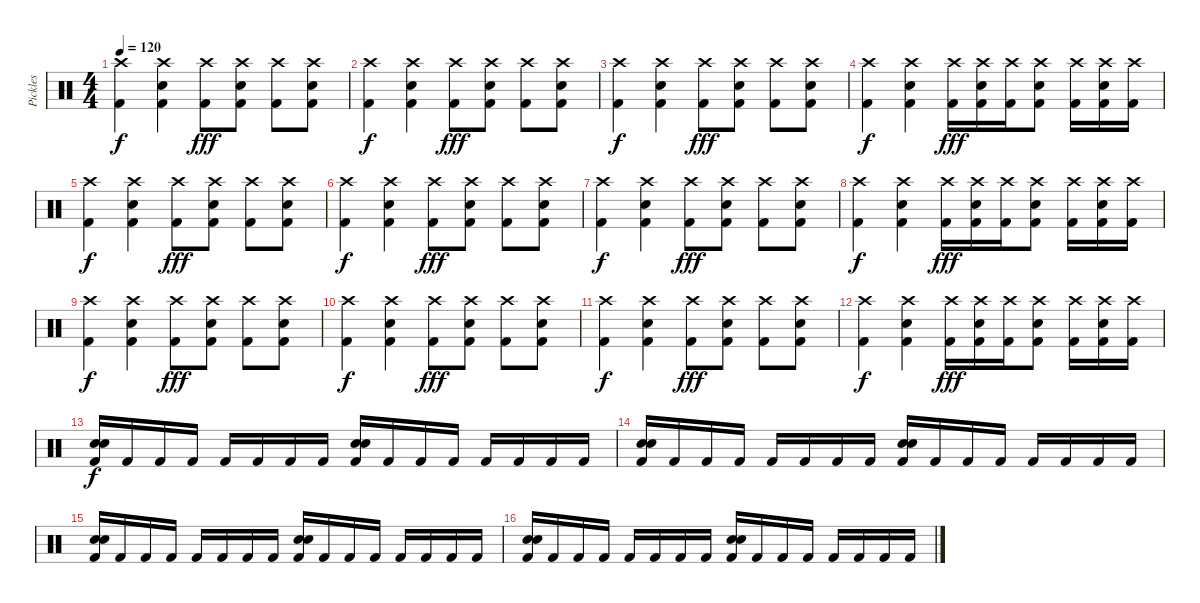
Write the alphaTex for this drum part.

\track ("Pickles" "Pickles") {instrument percussion}
\staff {score}
\articulation defaults
\ts (4 4)
\tempo 120
\clef neutral
\ks c
("Crash high (hit)" "Kick (hit) 2").4{dy f} ("Crash high (hit)" "Snare (hit) 2" "Kick (hit) 2").4 ("Crash high (hit)" "Kick (hit) 2").8{dy fff} ("Crash high (hit)" "Snare (hit) 2" "Kick (hit) 2").8 ("Crash high (hit)" "Kick (hit) 2").8 ("Crash high (hit)" "Electric Snare (hit)" "Kick (hit) 2").8 |
("Crash high (hit)" "Kick (hit) 2").4{dy f} ("Crash high (hit)" "Snare (hit) 2" "Kick (hit) 2").4 ("Crash high (hit)" "Kick (hit) 2").8{dy fff} ("Crash high (hit)" "Snare (hit) 2" "Kick (hit) 2").8 ("Crash high (hit)" "Kick (hit) 2").8 ("Crash high (hit)" "Electric Snare (hit)" "Kick (hit) 2").8 |
("Crash high (hit)" "Kick (hit) 2").4{dy f} ("Crash high (hit)" "Snare (hit) 2" "Kick (hit) 2").4 ("Crash high (hit)" "Kick (hit) 2").8{dy fff} ("Crash high (hit)" "Snare (hit) 2" "Kick (hit) 2").8 ("Crash high (hit)" "Kick (hit) 2").8 ("Crash high (hit)" "Electric Snare (hit)" "Kick (hit) 2").8 |
("Crash high (hit)" "Kick (hit) 2").4{dy f} ("Crash high (hit)" "Snare (hit) 2" "Kick (hit) 2").4 ("Crash high (hit)" "Kick (hit) 2").16{dy fff} ("Crash high (hit)" "Snare (hit) 2" "Kick (hit) 2").16 ("Crash high (hit)" "Kick (hit) 2").16 ("Crash high (hit)" "Electric Snare (hit)" "Kick (hit) 2").8 ("Crash high (hit)" "Kick (hit) 2").16 ("Crash high (hit)" "Snare (hit) 2" "Kick (hit) 2").16 ("Crash high (hit)" "Kick (hit) 2").16 |
("Crash high (hit)" "Kick (hit) 2").4{dy f} ("Crash high (hit)" "Snare (hit) 2" "Kick (hit) 2").4 ("Crash high (hit)" "Kick (hit) 2").8{dy fff} ("Crash high (hit)" "Snare (hit) 2" "Kick (hit) 2").8 ("Crash high (hit)" "Kick (hit) 2").8 ("Crash high (hit)" "Electric Snare (hit)" "Kick (hit) 2").8 |
("Crash high (hit)" "Kick (hit) 2").4{dy f} ("Crash high (hit)" "Snare (hit) 2" "Kick (hit) 2").4 ("Crash high (hit)" "Kick (hit) 2").8{dy fff} ("Crash high (hit)" "Snare (hit) 2" "Kick (hit) 2").8 ("Crash high (hit)" "Kick (hit) 2").8 ("Crash high (hit)" "Electric Snare (hit)" "Kick (hit) 2").8 |
("Crash high (hit)" "Kick (hit) 2").4{dy f} ("Crash high (hit)" "Snare (hit) 2" "Kick (hit) 2").4 ("Crash high (hit)" "Kick (hit) 2").8{dy fff} ("Crash high (hit)" "Snare (hit) 2" "Kick (hit) 2").8 ("Crash high (hit)" "Kick (hit) 2").8 ("Crash high (hit)" "Electric Snare (hit)" "Kick (hit) 2").8 |
("Crash high (hit)" "Kick (hit) 2").4{dy f} ("Crash high (hit)" "Snare (hit) 2" "Kick (hit) 2").4 ("Crash high (hit)" "Kick (hit) 2").16{dy fff} ("Crash high (hit)" "Snare (hit) 2" "Kick (hit) 2").16 ("Crash high (hit)" "Kick (hit) 2").16 ("Crash high (hit)" "Electric Snare (hit)" "Kick (hit) 2").8 ("Crash high (hit)" "Kick (hit) 2").16 ("Crash high (hit)" "Snare (hit) 2" "Kick (hit) 2").16 ("Crash high (hit)" "Kick (hit) 2").16 |
("Crash high (hit)" "Kick (hit) 2").4{dy f} ("Crash high (hit)" "Snare (hit) 2" "Kick (hit) 2").4 ("Crash high (hit)" "Kick (hit) 2").8{dy fff} ("Crash high (hit)" "Snare (hit) 2" "Kick (hit) 2").8 ("Crash high (hit)" "Kick (hit) 2").8 ("Crash high (hit)" "Electric Snare (hit)" "Kick (hit) 2").8 |
("Crash high (hit)" "Kick (hit) 2").4{dy f} ("Crash high (hit)" "Snare (hit) 2" "Kick (hit) 2").4 ("Crash high (hit)" "Kick (hit) 2").8{dy fff} ("Crash high (hit)" "Snare (hit) 2" "Kick (hit) 2").8 ("Crash high (hit)" "Kick (hit) 2").8 ("Crash high (hit)" "Electric Snare (hit)" "Kick (hit) 2").8 |
("Crash high (hit)" "Kick (hit) 2").4{dy f} ("Crash high (hit)" "Snare (hit) 2" "Kick (hit) 2").4 ("Crash high (hit)" "Kick (hit) 2").8{dy fff} ("Crash high (hit)" "Snare (hit) 2" "Kick (hit) 2").8 ("Crash high (hit)" "Kick (hit) 2").8 ("Crash high (hit)" "Electric Snare (hit)" "Kick (hit) 2").8 |
("Crash high (hit)" "Kick (hit) 2").4{dy f} ("Crash high (hit)" "Snare (hit) 2" "Kick (hit) 2").4 ("Crash high (hit)" "Kick (hit) 2").16{dy fff} ("Crash high (hit)" "Snare (hit) 2" "Kick (hit) 2").16 ("Crash high (hit)" "Kick (hit) 2").16 ("Crash high (hit)" "Electric Snare (hit)" "Kick (hit) 2").8 ("Crash high (hit)" "Kick (hit) 2").16 ("Crash high (hit)" "Snare (hit) 2" "Kick (hit) 2").16 ("Crash high (hit)" "Kick (hit) 2").16 |
("Electric Snare (hit)" "Snare (hit) 2" "Kick (hit) 2").16{dy f} "Kick (hit) 2".16 "Kick (hit) 2".16 "Kick (hit) 2".16 "Kick (hit) 2".16 "Kick (hit) 2".16 "Kick (hit) 2".16 "Kick (hit) 2".16 ("Electric Snare (hit)" "Snare (hit) 2" "Kick (hit) 2").16 "Kick (hit) 2".16 "Kick (hit) 2".16 "Kick (hit) 2".16 "Kick (hit) 2".16 "Kick (hit) 2".16 "Kick (hit) 2".16 "Kick (hit) 2".16 |
("Electric Snare (hit)" "Snare (hit) 2" "Kick (hit) 2").16 "Kick (hit) 2".16 "Kick (hit) 2".16 "Kick (hit) 2".16 "Kick (hit) 2".16 "Kick (hit) 2".16 "Kick (hit) 2".16 "Kick (hit) 2".16 ("Electric Snare (hit)" "Snare (hit) 2" "Kick (hit) 2").16 "Kick (hit) 2".16 "Kick (hit) 2".16 "Kick (hit) 2".16 "Kick (hit) 2".16 "Kick (hit) 2".16 "Kick (hit) 2".16 "Kick (hit) 2".16 |
("Electric Snare (hit)" "Snare (hit) 2" "Kick (hit) 2").16 "Kick (hit) 2".16 "Kick (hit) 2".16 "Kick (hit) 2".16 "Kick (hit) 2".16 "Kick (hit) 2".16 "Kick (hit) 2".16 "Kick (hit) 2".16 ("Electric Snare (hit)" "Snare (hit) 2" "Kick (hit) 2").16 "Kick (hit) 2".16 "Kick (hit) 2".16 "Kick (hit) 2".16 "Kick (hit) 2".16 "Kick (hit) 2".16 "Kick (hit) 2".16 "Kick (hit) 2".16 |
("Electric Snare (hit)" "Snare (hit) 2" "Kick (hit) 2").16 "Kick (hit) 2".16 "Kick (hit) 2".16 "Kick (hit) 2".16 "Kick (hit) 2".16 "Kick (hit) 2".16 "Kick (hit) 2".16 "Kick (hit) 2".16 ("Electric Snare (hit)" "Snare (hit) 2" "Kick (hit) 2").16 "Kick (hit) 2".16 "Kick (hit) 2".16 "Kick (hit) 2".16 "Kick (hit) 2".16 "Kick (hit) 2".16 "Kick (hit) 2".16 "Kick (hit) 2".16
